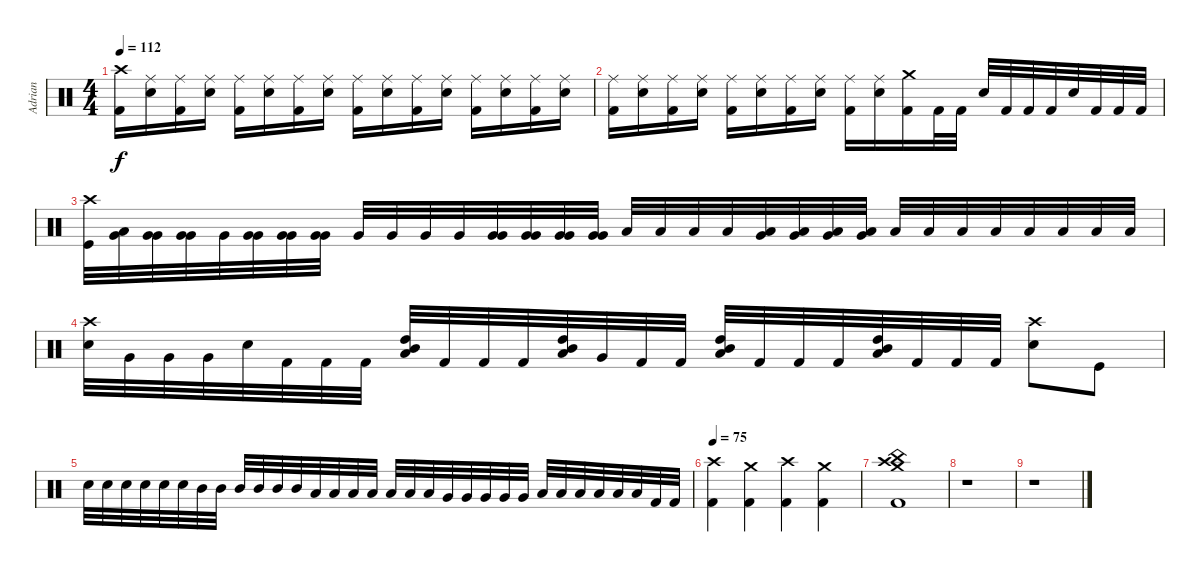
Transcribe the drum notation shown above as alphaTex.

\track ("Adrian" "Adrian") {instrument percussion}
\staff {score}
\articulation defaults
\ts (4 4)
\tempo 112
\clef neutral
\ks c
("Crash high (hit)" "Kick (hit) 2").16{dy f} ("Ride (middle)" "Snare (hit) 2").16 ("Ride (middle)" "Kick (hit) 2").16 ("Ride (middle)" "Snare (hit) 2").16 ("Ride (middle)" "Kick (hit) 2").16 ("Ride (middle)" "Snare (hit) 2").16 ("Ride (middle)" "Kick (hit) 2").16 ("Ride (middle)" "Snare (hit) 2").16 ("Ride (middle)" "Kick (hit) 2").16 ("Ride (middle)" "Snare (hit) 2").16 ("Ride (middle)" "Kick (hit) 2").16 ("Ride (middle)" "Snare (hit) 2").16 ("Ride (middle)" "Kick (hit) 2").16 ("Ride (middle)" "Snare (hit) 2").16 ("Ride (middle)" "Kick (hit) 2").16 ("Ride (middle)" "Snare (hit) 2").16 |
("Ride (middle)" "Kick (hit) 2").16 ("Ride (middle)" "Snare (hit) 2").16 ("Ride (middle)" "Kick (hit) 2").16 ("Ride (middle)" "Snare (hit) 2").16 ("Ride (middle)" "Kick (hit) 2").16 ("Ride (middle)" "Snare (hit) 2").16 ("Ride (middle)" "Kick (hit) 2").16 ("Ride (middle)" "Snare (hit) 2").16 ("Ride (middle)" "Kick (hit) 2").16 ("Ride (middle)" "Snare (hit) 2").16 ("Crash medium (hit)" "Kick (hit) 2").16 "Kick (hit) 2".32 "Kick (hit) 2".32 "Snare (hit) 2".32 "Kick (hit) 2".32 "Kick (hit) 2".32 "Kick (hit) 2".32 "Snare (hit) 2".32 "Kick (hit) 2".32 "Kick (hit) 2".32 "Kick (hit) 2".32 |
("Crash high (hit)" "Kick (hit)").32 ("Very Low Tom (hit)" "Low Tom (hit)").32 ("Very Low Tom (hit)" "Very Low Tom (hit)").32 ("Very Low Tom (hit)" "Very Low Tom (hit)").32 "Very Low Tom (hit)".32 ("Very Low Tom (hit)" "Very Low Tom (hit)").32 ("Very Low Tom (hit)" "Very Low Tom (hit)").32 ("Very Low Tom (hit)" "Very Low Tom (hit)").32 "Very Low Tom (hit)".32 "Very Low Tom (hit)".32 "Very Low Tom (hit)".32 "Very Low Tom (hit)".32 ("Very Low Tom (hit)" "Very Low Tom (hit)").32 ("Very Low Tom (hit)" "Very Low Tom (hit)").32 ("Very Low Tom (hit)" "Very Low Tom (hit)").32 ("Very Low Tom (hit)" "Very Low Tom (hit)").32 "Low Floor Tom (hit)".32 "Low Floor Tom (hit)".32 "Low Floor Tom (hit)".32 "Low Floor Tom (hit)".32 ("Low Floor Tom (hit)" "Very Low Tom (hit)").32 ("Low Floor Tom (hit)" "Very Low Tom (hit)").32 ("Low Floor Tom (hit)" "Very Low Tom (hit)").32 ("Low Floor Tom (hit)" "Very Low Tom (hit)").32 "Low Floor Tom (hit)".32 "Low Floor Tom (hit)".32 "Low Floor Tom (hit)".32 "Low Floor Tom (hit)".32 "Low Floor Tom (hit)".32 "Low Floor Tom (hit)".32 "Low Floor Tom (hit)".32 "Low Floor Tom (hit)".32 |
("Snare (hit) 2" "Crash high (hit)").32 "Very Low Tom (hit)".32 "Very Low Tom (hit)".32 "Very Low Tom (hit)".32 "Snare (hit) 2".32 "Kick (hit) 2".32 "Kick (hit) 2".32 "Kick (hit) 2".32 ("High Tom (hit)" "Low Tom (hit)" "Mid Tom (hit)").32 "Kick (hit) 2".32 "Kick (hit) 2".32 "Kick (hit) 2".32 ("High Tom (hit)" "Low Tom (hit)" "Mid Tom (hit)").32 "Very Low Tom (hit)".32 "Kick (hit) 2".32 "Kick (hit) 2".32 ("High Tom (hit)" "Low Tom (hit)" "Mid Tom (hit)").32 "Kick (hit) 2".32 "Kick (hit) 2".32 "Kick (hit) 2".32 ("High Tom (hit)" "Low Tom (hit)" "Mid Tom (hit)").32 "Kick (hit) 2".32 "Kick (hit) 2".32 "Kick (hit) 2".32 ("Snare (hit) 2" "Crash high (hit)").8 "Kick (hit)".8 |
"Snare (hit) 2".32 "Snare (hit) 2".32 "Snare (hit) 2".32 "Snare (hit) 2".32 "Snare (hit) 2".32 "Snare (hit) 2".32 "Mid Tom (hit)".32 "Mid Tom (hit)".32 "Mid Tom (hit)".32 "Mid Tom (hit)".32 "Mid Tom (hit)".32 "Mid Tom (hit)".32 "Low Tom (hit)".32 "Low Tom (hit)".32 "Low Tom (hit)".32 "Low Tom (hit)".32 "Low Tom (hit)".32 "Low Tom (hit)".32 "Low Tom (hit)".32 "Very Low Tom (hit)".32 "Very Low Tom (hit)".32 "Very Low Tom (hit)".32 "Very Low Tom (hit)".32 "Very Low Tom (hit)".32 "Low Floor Tom (hit)".32 "Low Floor Tom (hit)".32 "Low Floor Tom (hit)".32 "Low Floor Tom (hit)".32 "Low Floor Tom (hit)".32 "Low Floor Tom (hit)".32 "Kick (hit) 2".32 "Kick (hit) 2".32 |
\tempo 75
("Crash high (hit)" "Kick (hit) 2").4 ("Crash medium (hit)" "Kick (hit) 2").4 ("Crash high (hit)" "Kick (hit) 2").4 ("Crash medium (hit)" "Kick (hit) 2").4 |
("Crash high (hit)" "Kick (hit) 2" "Crash medium (hit)" "China (hit)").1 |
r.1 |
r.1
